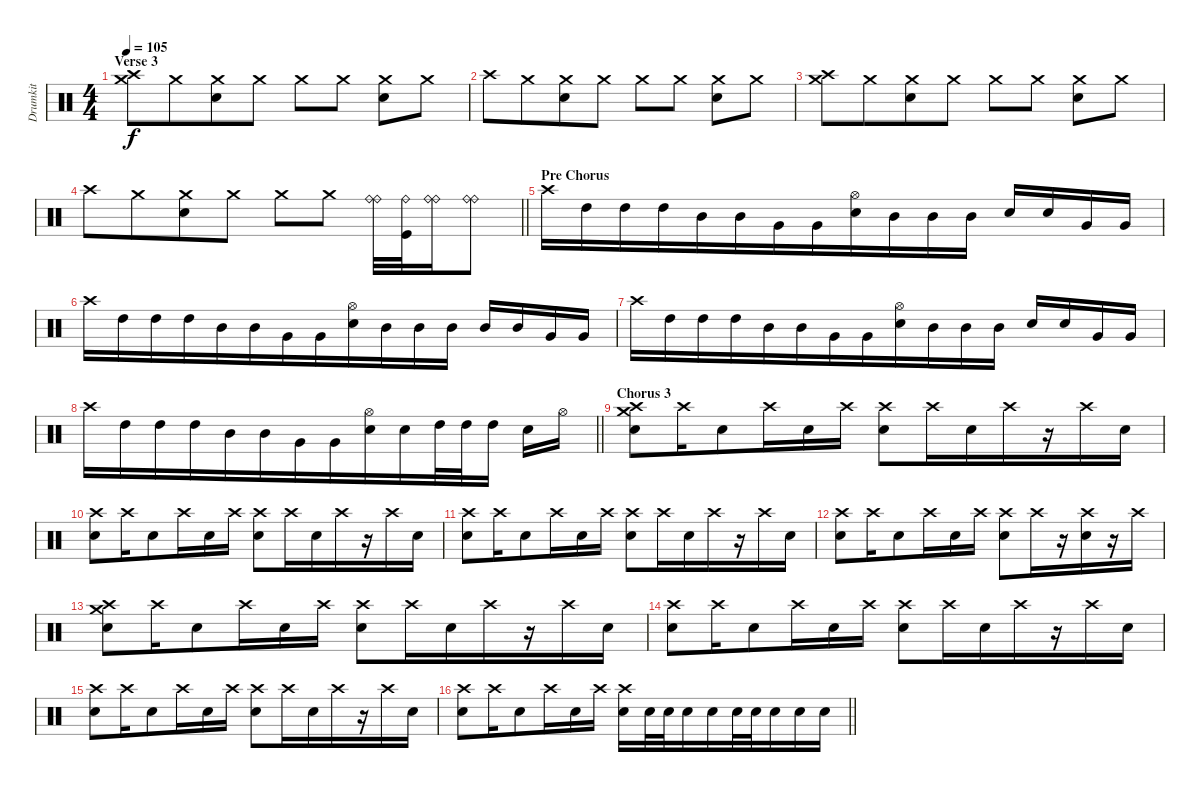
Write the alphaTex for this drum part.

\track ("Drumkit" "Drumkit") {instrument percussion}
\staff {score}
\articulation defaults
\ts (4 4)
\section ("" "Verse 3")
\tempo 105
\clef neutral
\ks c
("Crash medium (hit)" "Crash high (hit)").8{dy f} "Crash medium (hit)".8{beam merge} ("Crash medium (hit)" "Electric Snare (hit)").8 "Crash medium (hit)".8 "Crash medium (hit)".8 "Crash medium (hit)".8 ("Crash medium (hit)" "Electric Snare (hit)").8 "Crash medium (hit)".8 |
"Crash high (hit)".8 "Crash medium (hit)".8{beam merge} ("Crash medium (hit)" "Electric Snare (hit)").8 "Crash medium (hit)".8 "Crash medium (hit)".8 "Crash medium (hit)".8 ("Crash medium (hit)" "Electric Snare (hit)").8 "Crash medium (hit)".8 |
("Crash medium (hit)" "Crash high (hit)").8 "Crash medium (hit)".8{beam merge} ("Crash medium (hit)" "Electric Snare (hit)").8 "Crash medium (hit)".8 "Crash medium (hit)".8 "Crash medium (hit)".8 ("Crash medium (hit)" "Electric Snare (hit)").8 "Crash medium (hit)".8 |
\barLineRight lightlight "Crash high (hit)".8 "Crash medium (hit)".8{beam merge}
("Crash medium (hit)" "Electric Snare (hit)").8 "Crash medium (hit)".8 "Crash medium (hit)".8 "Crash medium (hit)".8 ("Ride (bell)" "Ride (bell)").32 ("Ride (bell)" "Kick (hit)").32 ("Ride (bell)" "Ride (bell)").16{beam merge} ("Ride (bell)" "Ride (bell)").8 |
\section ("" "Pre Chorus")
"Crash high (hit)".16 "High Tom (hit)".16 "High Tom (hit)".16{beam merge} "High Tom (hit)".16{beam merge} "Mid Tom (hit)".16{beam merge} "Mid Tom (hit)".16 "Very Low Tom (hit)".16 "Very Low Tom (hit)".16{beam merge} ("Hi-Hat (open)" "Electric Snare (hit)").16 "Mid Tom (hit)".16{beam merge} "Mid Tom (hit)".16{beam merge} "Mid Tom (hit)".16 "Electric Snare (hit)".16 "Electric Snare (hit)".16 "Very Low Tom (hit)".16 "Very Low Tom (hit)".16 |
"Crash high (hit)".16 "High Tom (hit)".16 "High Tom (hit)".16{beam merge} "High Tom (hit)".16{beam merge} "Mid Tom (hit)".16{beam merge} "Mid Tom (hit)".16 "Very Low Tom (hit)".16 "Very Low Tom (hit)".16{beam merge} ("Hi-Hat (open)" "Electric Snare (hit)").16 "Mid Tom (hit)".16{beam merge} "Mid Tom (hit)".16{beam merge} "Mid Tom (hit)".16 "Mid Tom (hit)".16 "Mid Tom (hit)".16 "Very Low Tom (hit)".16 "Very Low Tom (hit)".16 |
"Crash high (hit)".16 "High Tom (hit)".16 "High Tom (hit)".16{beam merge} "High Tom (hit)".16{beam merge} "Mid Tom (hit)".16{beam merge} "Mid Tom (hit)".16 "Very Low Tom (hit)".16 "Very Low Tom (hit)".16{beam merge} ("Hi-Hat (open)" "Electric Snare (hit)").16 "Mid Tom (hit)".16{beam merge} "Mid Tom (hit)".16{beam merge} "Mid Tom (hit)".16 "Electric Snare (hit)".16 "Electric Snare (hit)".16 "Very Low Tom (hit)".16 "Very Low Tom (hit)".16 |
\barLineRight lightlight "Crash high (hit)".16 "High Tom (hit)".16 "High Tom (hit)".16{beam merge} "High Tom (hit)".16{beam merge} "Mid Tom (hit)".16{beam merge} "Mid Tom (hit)".16 "Very Low Tom (hit)".16 "Very Low Tom (hit)".16{beam merge}
("Hi-Hat (open)" "Electric Snare (hit)").16 "Electric Snare (hit)".16{beam merge} "High Tom (hit)".32{beam merge} "High Tom (hit)".32 "High Tom (hit)".16 "Electric Snare (hit)".16 "Hi-Hat (open)".16 |
\section ("" "Chorus 3")
("Crash medium (hit)" "Crash high (hit)" "Electric Snare (hit)").8{beam merge} "Crash high (hit)".16 "Electric Snare (hit)".8{beam merge} "Crash high (hit)".16 "Electric Snare (hit)".16{beam merge} "Crash high (hit)".16 ("Crash high (hit)" "Electric Snare (hit)").8 "Crash high (hit)".16{beam merge} "Electric Snare (hit)".16{beam merge} "Crash high (hit)".16 r.16{beam merge} "Crash high (hit)".16 "Electric Snare (hit)".16 |
("Crash high (hit)" "Electric Snare (hit)").8{beam merge} "Crash high (hit)".16 "Electric Snare (hit)".8{beam merge} "Crash high (hit)".16 "Electric Snare (hit)".16{beam merge} "Crash high (hit)".16 ("Crash high (hit)" "Electric Snare (hit)").8 "Crash high (hit)".16{beam merge} "Electric Snare (hit)".16{beam merge} "Crash high (hit)".16 r.16{beam merge} "Crash high (hit)".16 "Electric Snare (hit)".16 |
("Crash high (hit)" "Electric Snare (hit)").8{beam merge} "Crash high (hit)".16 "Electric Snare (hit)".8{beam merge} "Crash high (hit)".16 "Electric Snare (hit)".16{beam merge} "Crash high (hit)".16 ("Crash high (hit)" "Electric Snare (hit)").8 "Crash high (hit)".16{beam merge} "Electric Snare (hit)".16{beam merge} "Crash high (hit)".16 r.16{beam merge} "Crash high (hit)".16 "Electric Snare (hit)".16 |
("Crash high (hit)" "Electric Snare (hit)").8{beam merge} "Crash high (hit)".16 "Electric Snare (hit)".8{beam merge} "Crash high (hit)".16 "Electric Snare (hit)".16{beam merge} "Crash high (hit)".16 ("Crash high (hit)" "Electric Snare (hit)").8 "Crash high (hit)".16{beam merge} r.16{beam merge} ("Crash high (hit)" "Electric Snare (hit)").16 r.16{beam merge} "Crash high (hit)".16 |
("Crash medium (hit)" "Crash high (hit)" "Electric Snare (hit)").8{beam merge} "Crash high (hit)".16 "Electric Snare (hit)".8{beam merge} "Crash high (hit)".16 "Electric Snare (hit)".16{beam merge} "Crash high (hit)".16 ("Crash high (hit)" "Electric Snare (hit)").8 "Crash high (hit)".16{beam merge} "Electric Snare (hit)".16{beam merge} "Crash high (hit)".16 r.16{beam merge} "Crash high (hit)".16 "Electric Snare (hit)".16 |
("Crash high (hit)" "Electric Snare (hit)").8{beam merge} "Crash high (hit)".16 "Electric Snare (hit)".8{beam merge} "Crash high (hit)".16 "Electric Snare (hit)".16{beam merge} "Crash high (hit)".16 ("Crash high (hit)" "Electric Snare (hit)").8 "Crash high (hit)".16{beam merge} "Electric Snare (hit)".16{beam merge} "Crash high (hit)".16 r.16{beam merge} "Crash high (hit)".16 "Electric Snare (hit)".16 |
("Crash high (hit)" "Electric Snare (hit)").8{beam merge} "Crash high (hit)".16 "Electric Snare (hit)".8{beam merge} "Crash high (hit)".16 "Electric Snare (hit)".16{beam merge} "Crash high (hit)".16 ("Crash high (hit)" "Electric Snare (hit)").8 "Crash high (hit)".16{beam merge} "Electric Snare (hit)".16{beam merge} "Crash high (hit)".16 r.16{beam merge} "Crash high (hit)".16 "Electric Snare (hit)".16 |
\barLineRight lightlight
("Crash high (hit)" "Electric Snare (hit)").8{beam merge} "Crash high (hit)".16 "Electric Snare (hit)".8{beam merge} "Crash high (hit)".16 "Electric Snare (hit)".16{beam merge} "Crash high (hit)".16 ("Crash high (hit)" "Electric Snare (hit)").16 "Electric Snare (hit)".32{beam merge} "Electric Snare (hit)".32{beam merge} "Electric Snare (hit)".16 "Electric Snare (hit)".16{beam merge} "Electric Snare (hit)".32 "Electric Snare (hit)".32{beam merge} "Electric Snare (hit)".16{beam merge} "Electric Snare (hit)".16{beam merge} "Electric Snare (hit)".16
